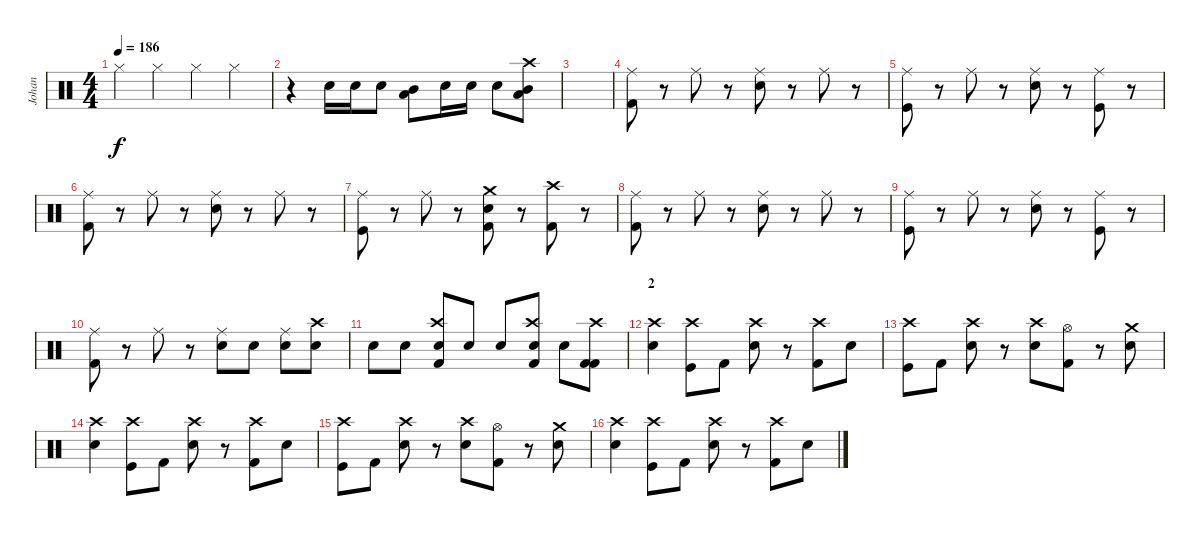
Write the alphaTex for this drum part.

\track ("Johan" "Johan") {instrument percussion}
\staff {score}
\articulation defaults
\ts (4 4)
\tempo 186
\clef neutral
\ks c "Hi-Hat (closed)".4{dy f} "Hi-Hat (closed)".4 "Hi-Hat (closed)".4 "Hi-Hat (closed)".4
|
r.4 "Snare (hit) 2".16 "Snare (hit) 2".16 "Snare (hit) 2".8 ("Mid Tom (hit)" "Low Tom (hit)").8 "Snare (hit) 2".16 "Snare (hit) 2".16 "Snare (hit) 2".8 ("Mid Tom (hit)" "Low Tom (hit)" "Crash high (hit)").8 |
|
("Ride (middle)" "Kick (hit) 2").8 r.8 "Ride (middle)".8 r.8 ("Ride (middle)" "Snare (hit) 2").8 r.8 "Ride (middle)".8 r.8 |
("Ride (middle)" "Kick (hit)").8 r.8 "Ride (middle)".8 r.8 ("Ride (middle)" "Snare (hit) 2").8 r.8 ("Ride (middle)" "Kick (hit)").8 r.8 |
("Ride (middle)" "Kick (hit) 2").8 r.8 "Ride (middle)".8 r.8 ("Ride (middle)" "Snare (hit) 2").8 r.8 "Ride (middle)".8 r.8 |
("Ride (middle)" "Kick (hit)").8 r.8 "Ride (middle)".8 r.8 ("Crash medium (hit)" "Snare (hit) 2" "Kick (hit) 2").8 r.8 ("Crash high (hit)" "Kick (hit) 2").8 r.8 |
("Ride (middle)" "Kick (hit) 2").8 r.8 "Ride (middle)".8 r.8 ("Ride (middle)" "Snare (hit) 2").8 r.8 "Ride (middle)".8 r.8 |
("Ride (middle)" "Kick (hit)").8 r.8 "Ride (middle)".8 r.8 ("Ride (middle)" "Snare (hit) 2").8 r.8 ("Ride (middle)" "Kick (hit)").8 r.8 |
("Ride (middle)" "Kick (hit) 2").8 r.8 "Ride (middle)".8 r.8 ("Ride (middle)" "Snare (hit) 2").8 "Snare (hit) 2".8 ("Ride (middle)" "Snare (hit) 2").8 ("Crash high (hit)" "Snare (hit) 2").8 |
"Snare (hit) 2".8 "Snare (hit) 2".8 ("Crash high (hit)" "Snare (hit) 2" "Kick (hit) 2").8 "Snare (hit) 2".8 "Snare (hit) 2".8 ("Crash high (hit)" "Snare (hit) 2" "Kick (hit) 2").8 "Snare (hit) 2".8 ("Crash high (hit)" "Kick (hit) 2" "Kick (hit) 2").8 |
\section ("" "2")
("Crash high (hit)" "Snare (hit) 2").4 ("Crash high (hit)" "Kick (hit)").8 "Kick (hit) 2".8 ("Crash high (hit)" "Snare (hit) 2").8 r.8 ("Crash high (hit)" "Kick (hit) 2").8 "Snare (hit) 2".8 |
("Crash high (hit)" "Kick (hit)").8 "Kick (hit) 2".8 ("Crash high (hit)" "Snare (hit) 2").8 r.8 ("Crash high (hit)" "Snare (hit) 2").8 ("Hi-Hat (open)" "Kick (hit) 2").8 r.8 ("Crash medium (hit)" "Snare (hit) 2").8 |
("Crash high (hit)" "Snare (hit) 2").4 ("Crash high (hit)" "Kick (hit)").8 "Kick (hit) 2".8 ("Crash high (hit)" "Snare (hit) 2").8 r.8 ("Crash high (hit)" "Kick (hit) 2").8 "Snare (hit) 2".8 |
("Crash high (hit)" "Kick (hit)").8 "Kick (hit) 2".8 ("Crash high (hit)" "Snare (hit) 2").8 r.8 ("Crash high (hit)" "Snare (hit) 2").8 ("Hi-Hat (open)" "Kick (hit) 2").8 r.8 ("Crash medium (hit)" "Snare (hit) 2").8 |
("Crash high (hit)" "Snare (hit) 2").4 ("Crash high (hit)" "Kick (hit)").8 "Kick (hit) 2".8 ("Crash high (hit)" "Snare (hit) 2").8 r.8 ("Crash high (hit)" "Kick (hit) 2").8 "Snare (hit) 2".8
